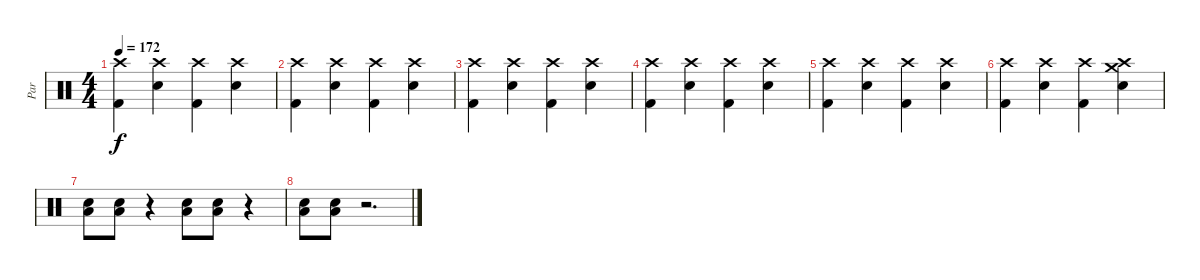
\track ("Par" "Par") {instrument percussion}
\staff {score}
\articulation defaults
\ts (4 4)
\tempo 172
\clef neutral
\ks c
("Crash high (hit)" "Kick (hit) 2").4{dy f} ("Crash high (hit)" "Snare (hit) 2").4 ("Crash high (hit)" "Kick (hit) 2").4 ("Crash high (hit)" "Snare (hit) 2").4 |
("Crash high (hit)" "Kick (hit) 2").4 ("Crash high (hit)" "Snare (hit) 2").4 ("Crash high (hit)" "Kick (hit) 2").4 ("Crash high (hit)" "Snare (hit) 2").4 |
("Crash high (hit)" "Kick (hit) 2").4 ("Crash high (hit)" "Snare (hit) 2").4 ("Crash high (hit)" "Kick (hit) 2").4 ("Crash high (hit)" "Snare (hit) 2").4 |
("Crash high (hit)" "Kick (hit) 2").4 ("Crash high (hit)" "Snare (hit) 2").4 ("Crash high (hit)" "Kick (hit) 2").4 ("Crash high (hit)" "Snare (hit) 2").4 |
("Crash high (hit)" "Kick (hit) 2").4 ("Crash high (hit)" "Snare (hit) 2").4 ("Crash high (hit)" "Kick (hit) 2").4 ("Crash high (hit)" "Snare (hit) 2").4 |
("Crash high (hit)" "Kick (hit) 2").4 ("Crash high (hit)" "Snare (hit) 2").4 ("Crash high (hit)" "Kick (hit) 2").4 ("Crash medium (hit)" "Crash high (hit)" "Snare (hit) 2").4 |
("Low Floor Tom (hit)" "Snare (hit) 2").8 ("Low Floor Tom (hit)" "Snare (hit) 2").8 r.4 ("Low Floor Tom (hit)" "Snare (hit) 2").8 ("Low Floor Tom (hit)" "Snare (hit) 2").8 r.4 |
("Low Floor Tom (hit)" "Snare (hit) 2").8 ("Low Floor Tom (hit)" "Snare (hit) 2").8 r.2{d}
